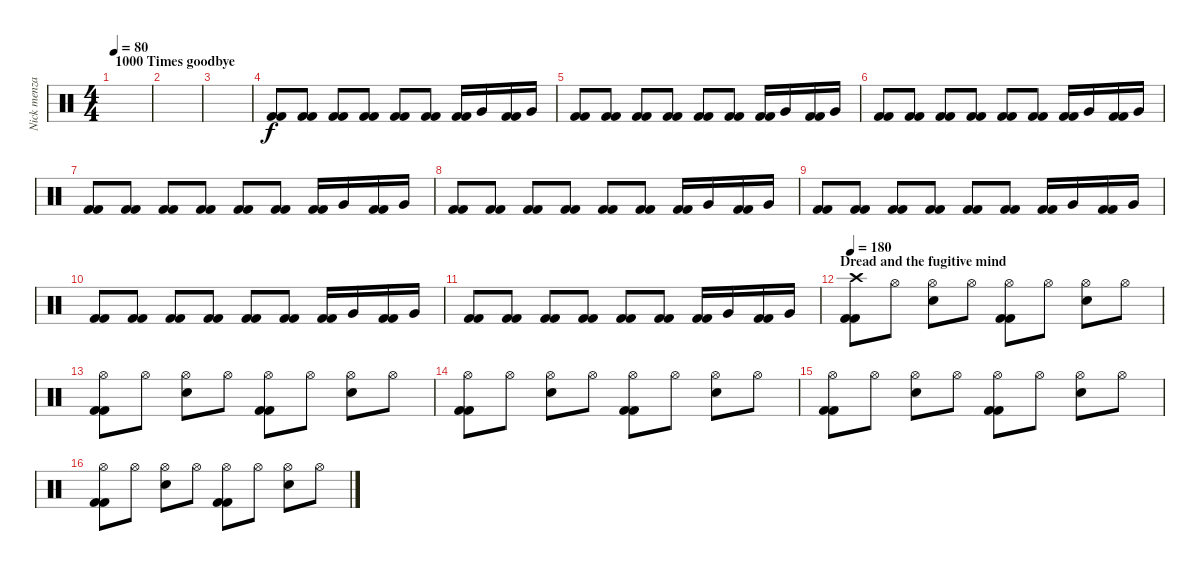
\track ("Nick menza/Jimmy de grasso" "Nick menza") {instrument percussion}
\staff {score}
\articulation defaults
\ts (4 4)
\section ("" "1000 Times goodbye")
\tempo 80
\clef neutral
\ks c
|
|
|
("Kick (hit) 2" "Kick (hit) 2").8 ("Kick (hit) 2" "Kick (hit) 2").8 ("Kick (hit) 2" "Kick (hit) 2").8 ("Kick (hit) 2" "Kick (hit) 2").8 ("Kick (hit) 2" "Kick (hit) 2").8 ("Kick (hit) 2" "Kick (hit) 2").8 ("Kick (hit) 2" "Kick (hit) 2").16 "Very Low Tom (hit)".16 ("Kick (hit) 2" "Kick (hit) 2").16 "Very Low Tom (hit)".16 |
("Kick (hit) 2" "Kick (hit) 2").8 ("Kick (hit) 2" "Kick (hit) 2").8 ("Kick (hit) 2" "Kick (hit) 2").8 ("Kick (hit) 2" "Kick (hit) 2").8 ("Kick (hit) 2" "Kick (hit) 2").8 ("Kick (hit) 2" "Kick (hit) 2").8 ("Kick (hit) 2" "Kick (hit) 2").16 "Very Low Tom (hit)".16 ("Kick (hit) 2" "Kick (hit) 2").16 "Very Low Tom (hit)".16 |
("Kick (hit) 2" "Kick (hit) 2").8 ("Kick (hit) 2" "Kick (hit) 2").8 ("Kick (hit) 2" "Kick (hit) 2").8 ("Kick (hit) 2" "Kick (hit) 2").8 ("Kick (hit) 2" "Kick (hit) 2").8 ("Kick (hit) 2" "Kick (hit) 2").8 ("Kick (hit) 2" "Kick (hit) 2").16 "Very Low Tom (hit)".16 ("Kick (hit) 2" "Kick (hit) 2").16 "Very Low Tom (hit)".16 |
("Kick (hit) 2" "Kick (hit) 2").8 ("Kick (hit) 2" "Kick (hit) 2").8 ("Kick (hit) 2" "Kick (hit) 2").8 ("Kick (hit) 2" "Kick (hit) 2").8 ("Kick (hit) 2" "Kick (hit) 2").8 ("Kick (hit) 2" "Kick (hit) 2").8 ("Kick (hit) 2" "Kick (hit) 2").16 "Very Low Tom (hit)".16 ("Kick (hit) 2" "Kick (hit) 2").16 "Very Low Tom (hit)".16 |
("Kick (hit) 2" "Kick (hit) 2").8 ("Kick (hit) 2" "Kick (hit) 2").8 ("Kick (hit) 2" "Kick (hit) 2").8 ("Kick (hit) 2" "Kick (hit) 2").8 ("Kick (hit) 2" "Kick (hit) 2").8 ("Kick (hit) 2" "Kick (hit) 2").8 ("Kick (hit) 2" "Kick (hit) 2").16 "Very Low Tom (hit)".16 ("Kick (hit) 2" "Kick (hit) 2").16 "Very Low Tom (hit)".16 |
("Kick (hit) 2" "Kick (hit) 2").8 ("Kick (hit) 2" "Kick (hit) 2").8 ("Kick (hit) 2" "Kick (hit) 2").8 ("Kick (hit) 2" "Kick (hit) 2").8 ("Kick (hit) 2" "Kick (hit) 2").8 ("Kick (hit) 2" "Kick (hit) 2").8 ("Kick (hit) 2" "Kick (hit) 2").16 "Very Low Tom (hit)".16 ("Kick (hit) 2" "Kick (hit) 2").16 "Very Low Tom (hit)".16 |
("Kick (hit) 2" "Kick (hit) 2").8 ("Kick (hit) 2" "Kick (hit) 2").8 ("Kick (hit) 2" "Kick (hit) 2").8 ("Kick (hit) 2" "Kick (hit) 2").8 ("Kick (hit) 2" "Kick (hit) 2").8 ("Kick (hit) 2" "Kick (hit) 2").8 ("Kick (hit) 2" "Kick (hit) 2").16 "Very Low Tom (hit)".16 ("Kick (hit) 2" "Kick (hit) 2").16 "Very Low Tom (hit)".16 |
("Kick (hit) 2" "Kick (hit) 2").8 ("Kick (hit) 2" "Kick (hit) 2").8 ("Kick (hit) 2" "Kick (hit) 2").8 ("Kick (hit) 2" "Kick (hit) 2").8 ("Kick (hit) 2" "Kick (hit) 2").8 ("Kick (hit) 2" "Kick (hit) 2").8 ("Kick (hit) 2" "Kick (hit) 2").16 "Very Low Tom (hit)".16 ("Kick (hit) 2" "Kick (hit) 2").16 "Very Low Tom (hit)".16 |
\section ("" "Dread and the fugitive mind")
\tempo 180
("Crash high (hit)" "Kick (hit) 2" "Kick (hit) 2").8 "Hi-Hat (open)".8 ("Hi-Hat (open)" "Electric Snare (hit)").8 "Hi-Hat (open)".8 ("Hi-Hat (open)" "Kick (hit) 2" "Kick (hit) 2").8 "Hi-Hat (open)".8 ("Hi-Hat (open)" "Electric Snare (hit)").8 "Hi-Hat (open)".8 |
("Hi-Hat (open)" "Kick (hit) 2" "Kick (hit) 2").8 "Hi-Hat (open)".8 ("Hi-Hat (open)" "Electric Snare (hit)").8 "Hi-Hat (open)".8 ("Hi-Hat (open)" "Kick (hit) 2" "Kick (hit) 2").8 "Hi-Hat (open)".8 ("Hi-Hat (open)" "Electric Snare (hit)").8 "Hi-Hat (open)".8 |
("Hi-Hat (open)" "Kick (hit) 2" "Kick (hit) 2").8 "Hi-Hat (open)".8 ("Hi-Hat (open)" "Electric Snare (hit)").8 "Hi-Hat (open)".8 ("Hi-Hat (open)" "Kick (hit) 2" "Kick (hit) 2").8 "Hi-Hat (open)".8 ("Hi-Hat (open)" "Electric Snare (hit)").8 "Hi-Hat (open)".8 |
("Hi-Hat (open)" "Kick (hit) 2" "Kick (hit) 2").8 "Hi-Hat (open)".8 ("Hi-Hat (open)" "Electric Snare (hit)").8 "Hi-Hat (open)".8 ("Hi-Hat (open)" "Kick (hit) 2" "Kick (hit) 2").8 "Hi-Hat (open)".8 ("Hi-Hat (open)" "Electric Snare (hit)").8 "Hi-Hat (open)".8 |
("Hi-Hat (open)" "Kick (hit) 2" "Kick (hit) 2").8 "Hi-Hat (open)".8 ("Hi-Hat (open)" "Electric Snare (hit)").8 "Hi-Hat (open)".8 ("Hi-Hat (open)" "Kick (hit) 2" "Kick (hit) 2").8 "Hi-Hat (open)".8 ("Hi-Hat (open)" "Electric Snare (hit)").8 "Hi-Hat (open)".8
